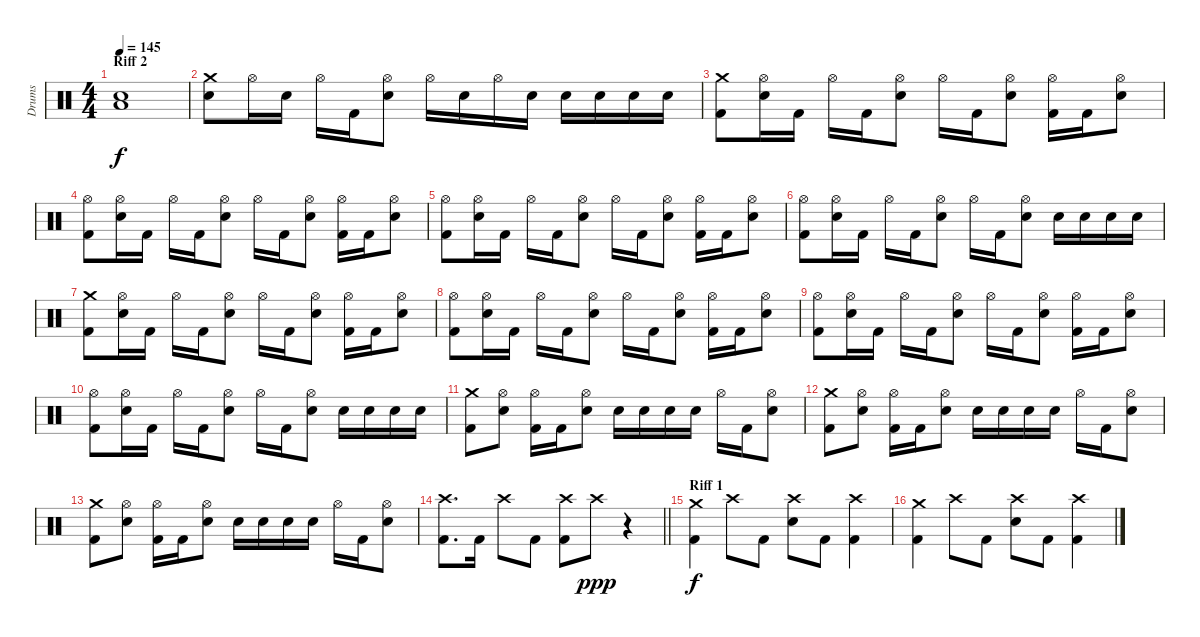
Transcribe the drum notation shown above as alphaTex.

\track ("Drums" "Drums") {instrument percussion}
\staff {score}
\articulation defaults
\ts (4 4)
\section ("" "Riff 2")
\tempo 145
\clef neutral
\ks c
("Electric Snare (hit)" "Low Floor Tom (hit)").1{dy f} |
("Crash medium (hit)" "Electric Snare (hit)").8 "Hi-Hat (open)".16 "Electric Snare (hit)".16 "Hi-Hat (open)".16 "Kick (hit) 2".16 ("Electric Snare (hit)" "Hi-Hat (open)").8 "Hi-Hat (open)".16 "Electric Snare (hit)".16 "Hi-Hat (open)".16 "Electric Snare (hit)".16 "Electric Snare (hit)".16 "Electric Snare (hit)".16 "Electric Snare (hit)".16 "Electric Snare (hit)".16 |
("Crash medium (hit)" "Kick (hit) 2").8 ("Hi-Hat (open)" "Electric Snare (hit)").16 "Kick (hit) 2".16 "Hi-Hat (open)".16 "Kick (hit) 2".16 ("Hi-Hat (open)" "Electric Snare (hit)").8 "Hi-Hat (open)".16 "Kick (hit) 2".16 ("Electric Snare (hit)" "Hi-Hat (open)").8 ("Kick (hit) 2" "Hi-Hat (open)").16 "Kick (hit) 2".16 ("Electric Snare (hit)" "Hi-Hat (open)").8 |
("Hi-Hat (open)" "Kick (hit) 2").8 ("Hi-Hat (open)" "Electric Snare (hit)").16 "Kick (hit) 2".16 "Hi-Hat (open)".16 "Kick (hit) 2".16 ("Hi-Hat (open)" "Electric Snare (hit)").8 "Hi-Hat (open)".16 "Kick (hit) 2".16 ("Electric Snare (hit)" "Hi-Hat (open)").8 ("Kick (hit) 2" "Hi-Hat (open)").16 "Kick (hit) 2".16 ("Electric Snare (hit)" "Hi-Hat (open)").8 |
("Hi-Hat (open)" "Kick (hit) 2").8 ("Hi-Hat (open)" "Electric Snare (hit)").16 "Kick (hit) 2".16 "Hi-Hat (open)".16 "Kick (hit) 2".16 ("Hi-Hat (open)" "Electric Snare (hit)").8 "Hi-Hat (open)".16 "Kick (hit) 2".16 ("Electric Snare (hit)" "Hi-Hat (open)").8 ("Kick (hit) 2" "Hi-Hat (open)").16 "Kick (hit) 2".16 ("Electric Snare (hit)" "Hi-Hat (open)").8 |
("Hi-Hat (open)" "Kick (hit) 2").8 ("Hi-Hat (open)" "Electric Snare (hit)").16 "Kick (hit) 2".16 "Hi-Hat (open)".16 "Kick (hit) 2".16 ("Hi-Hat (open)" "Electric Snare (hit)").8 "Hi-Hat (open)".16 "Kick (hit) 2".16 ("Electric Snare (hit)" "Hi-Hat (open)").8 "Electric Snare (hit)".16 "Electric Snare (hit)".16 "Electric Snare (hit)".16 "Electric Snare (hit)".16 |
("Crash medium (hit)" "Kick (hit) 2").8 ("Hi-Hat (open)" "Electric Snare (hit)").16 "Kick (hit) 2".16 "Hi-Hat (open)".16 "Kick (hit) 2".16 ("Hi-Hat (open)" "Electric Snare (hit)").8 "Hi-Hat (open)".16 "Kick (hit) 2".16 ("Electric Snare (hit)" "Hi-Hat (open)").8 ("Kick (hit) 2" "Hi-Hat (open)").16 "Kick (hit) 2".16 ("Electric Snare (hit)" "Hi-Hat (open)").8 |
("Hi-Hat (open)" "Kick (hit) 2").8 ("Hi-Hat (open)" "Electric Snare (hit)").16 "Kick (hit) 2".16 "Hi-Hat (open)".16 "Kick (hit) 2".16 ("Hi-Hat (open)" "Electric Snare (hit)").8 "Hi-Hat (open)".16 "Kick (hit) 2".16 ("Electric Snare (hit)" "Hi-Hat (open)").8 ("Kick (hit) 2" "Hi-Hat (open)").16 "Kick (hit) 2".16 ("Electric Snare (hit)" "Hi-Hat (open)").8 |
("Hi-Hat (open)" "Kick (hit) 2").8 ("Hi-Hat (open)" "Electric Snare (hit)").16 "Kick (hit) 2".16 "Hi-Hat (open)".16 "Kick (hit) 2".16 ("Hi-Hat (open)" "Electric Snare (hit)").8 "Hi-Hat (open)".16 "Kick (hit) 2".16 ("Electric Snare (hit)" "Hi-Hat (open)").8 ("Kick (hit) 2" "Hi-Hat (open)").16 "Kick (hit) 2".16 ("Electric Snare (hit)" "Hi-Hat (open)").8 |
("Hi-Hat (open)" "Kick (hit) 2").8 ("Hi-Hat (open)" "Electric Snare (hit)").16 "Kick (hit) 2".16 "Hi-Hat (open)".16 "Kick (hit) 2".16 ("Hi-Hat (open)" "Electric Snare (hit)").8 "Hi-Hat (open)".16 "Kick (hit) 2".16 ("Electric Snare (hit)" "Hi-Hat (open)").8 "Electric Snare (hit)".16 "Electric Snare (hit)".16 "Electric Snare (hit)".16 "Electric Snare (hit)".16 |
("Crash medium (hit)" "Kick (hit) 2").8 ("Electric Snare (hit)" "Hi-Hat (open)").8 ("Kick (hit) 2" "Hi-Hat (open)").16 "Kick (hit) 2".16 ("Electric Snare (hit)" "Hi-Hat (open)").8 "Electric Snare (hit)".16 "Electric Snare (hit)".16 "Electric Snare (hit)".16 "Electric Snare (hit)".16 "Hi-Hat (open)".16 "Kick (hit) 2".16 ("Electric Snare (hit)" "Hi-Hat (open)").8 |
("Crash medium (hit)" "Kick (hit) 2").8 ("Electric Snare (hit)" "Hi-Hat (open)").8 ("Kick (hit) 2" "Hi-Hat (open)").16 "Kick (hit) 2".16 ("Electric Snare (hit)" "Hi-Hat (open)").8 "Electric Snare (hit)".16 "Electric Snare (hit)".16 "Electric Snare (hit)".16 "Electric Snare (hit)".16 "Hi-Hat (open)".16 "Kick (hit) 2".16 ("Electric Snare (hit)" "Hi-Hat (open)").8 |
("Crash medium (hit)" "Kick (hit) 2").8 ("Electric Snare (hit)" "Hi-Hat (open)").8 ("Kick (hit) 2" "Hi-Hat (open)").16 "Kick (hit) 2".16 ("Electric Snare (hit)" "Hi-Hat (open)").8 "Electric Snare (hit)".16 "Electric Snare (hit)".16 "Electric Snare (hit)".16 "Electric Snare (hit)".16 "Hi-Hat (open)".16 "Kick (hit) 2".16 ("Electric Snare (hit)" "Hi-Hat (open)").8 |
\barLineRight lightlight
("Crash high (hit)" "Kick (hit) 2").8{d} "Kick (hit) 2".16 "Crash high (hit)".8 "Kick (hit) 2".8 ("Crash high (hit)" "Kick (hit) 2").8 "Crash high (hit)".8{dy ppp} r.4 |
\section ("" "Riff 1")
("Crash medium (hit)" "Kick (hit) 2").4{dy f} "Crash high (hit)".8 "Kick (hit) 2".8 ("Crash high (hit)" "Electric Snare (hit)").8 "Kick (hit) 2".8 ("Kick (hit) 2" "Crash high (hit)").4 |
("Crash medium (hit)" "Kick (hit) 2").4 "Crash high (hit)".8 "Kick (hit) 2".8 ("Crash high (hit)" "Electric Snare (hit)").8 "Kick (hit) 2".8 ("Kick (hit) 2" "Crash high (hit)").4
